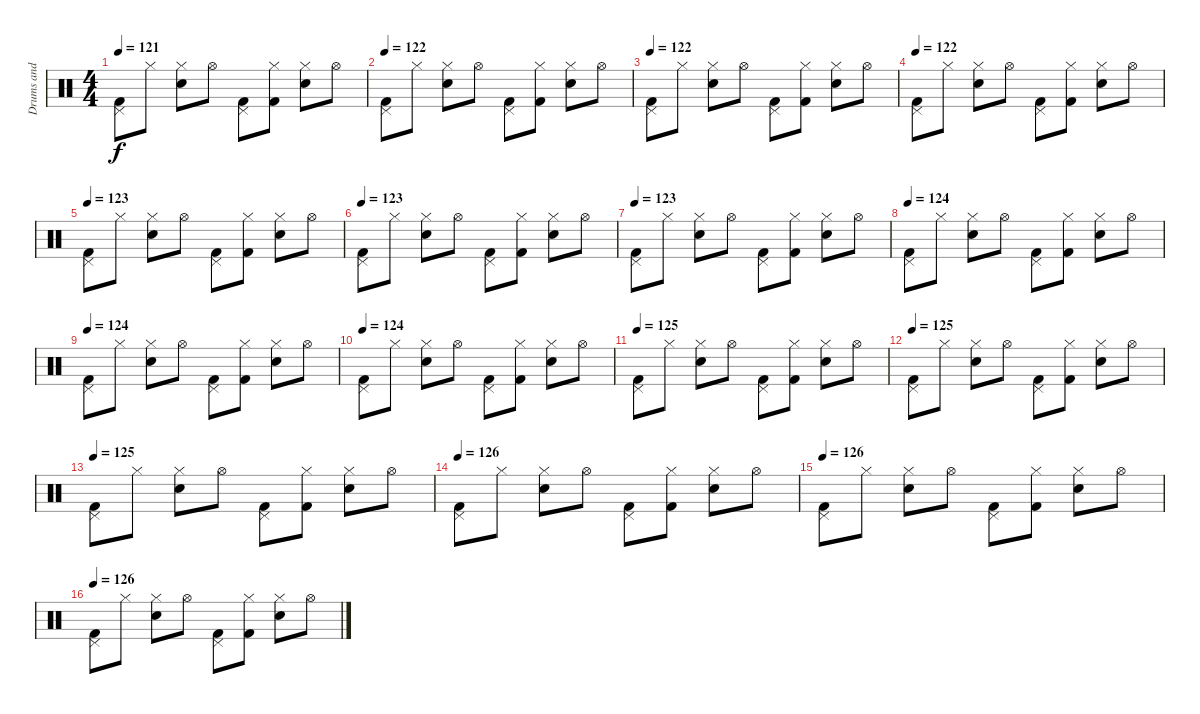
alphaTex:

\track ("Drums and Percussion" "Drums and ") {instrument percussion}
\staff {score}
\articulation defaults
\ts (4 4)
\tempo 121
\clef neutral
\ks c
("Pedal Hi-Hat (hit)" "Kick (hit) 2").8{dy f} "Hi-Hat (closed)".8 ("Hi-Hat (closed)" "Electric Snare (hit)").8 "Hi-Hat (open)".8 ("Pedal Hi-Hat (hit)" "Kick (hit) 2").8 ("Hi-Hat (closed)" "Kick (hit) 2").8 ("Hi-Hat (closed)" "Electric Snare (hit)").8 "Hi-Hat (open)".8 |
\tempo 122
("Pedal Hi-Hat (hit)" "Kick (hit) 2").8 "Hi-Hat (closed)".8 ("Hi-Hat (closed)" "Electric Snare (hit)").8 "Hi-Hat (open)".8 ("Pedal Hi-Hat (hit)" "Kick (hit) 2").8 ("Hi-Hat (closed)" "Kick (hit) 2").8 ("Hi-Hat (closed)" "Electric Snare (hit)").8 "Hi-Hat (open)".8 |
\tempo 122
("Pedal Hi-Hat (hit)" "Kick (hit) 2").8 "Hi-Hat (closed)".8 ("Hi-Hat (closed)" "Electric Snare (hit)").8 "Hi-Hat (open)".8 ("Pedal Hi-Hat (hit)" "Kick (hit) 2").8 ("Hi-Hat (closed)" "Kick (hit) 2").8 ("Hi-Hat (closed)" "Electric Snare (hit)").8 "Hi-Hat (open)".8 |
\tempo 122
("Pedal Hi-Hat (hit)" "Kick (hit) 2").8 "Hi-Hat (closed)".8 ("Hi-Hat (closed)" "Electric Snare (hit)").8 "Hi-Hat (open)".8 ("Pedal Hi-Hat (hit)" "Kick (hit) 2").8 ("Hi-Hat (closed)" "Kick (hit) 2").8 ("Hi-Hat (closed)" "Electric Snare (hit)").8 "Hi-Hat (open)".8 |
\tempo 123
("Pedal Hi-Hat (hit)" "Kick (hit) 2").8 "Hi-Hat (closed)".8 ("Hi-Hat (closed)" "Electric Snare (hit)").8 "Hi-Hat (open)".8 ("Pedal Hi-Hat (hit)" "Kick (hit) 2").8 ("Hi-Hat (closed)" "Kick (hit) 2").8 ("Hi-Hat (closed)" "Electric Snare (hit)").8 "Hi-Hat (open)".8 |
\tempo 123
("Pedal Hi-Hat (hit)" "Kick (hit) 2").8 "Hi-Hat (closed)".8 ("Hi-Hat (closed)" "Electric Snare (hit)").8 "Hi-Hat (open)".8 ("Pedal Hi-Hat (hit)" "Kick (hit) 2").8 ("Hi-Hat (closed)" "Kick (hit) 2").8 ("Hi-Hat (closed)" "Electric Snare (hit)").8 "Hi-Hat (open)".8 |
\tempo 123
("Pedal Hi-Hat (hit)" "Kick (hit) 2").8 "Hi-Hat (closed)".8 ("Hi-Hat (closed)" "Electric Snare (hit)").8 "Hi-Hat (open)".8 ("Pedal Hi-Hat (hit)" "Kick (hit) 2").8 ("Hi-Hat (closed)" "Kick (hit) 2").8 ("Hi-Hat (closed)" "Electric Snare (hit)").8 "Hi-Hat (open)".8 |
\tempo 124
("Pedal Hi-Hat (hit)" "Kick (hit) 2").8 "Hi-Hat (closed)".8 ("Hi-Hat (closed)" "Electric Snare (hit)").8 "Hi-Hat (open)".8 ("Pedal Hi-Hat (hit)" "Kick (hit) 2").8 ("Hi-Hat (closed)" "Kick (hit) 2").8 ("Hi-Hat (closed)" "Electric Snare (hit)").8 "Hi-Hat (open)".8 |
\tempo 124
("Pedal Hi-Hat (hit)" "Kick (hit) 2").8 "Hi-Hat (closed)".8 ("Hi-Hat (closed)" "Electric Snare (hit)").8 "Hi-Hat (open)".8 ("Pedal Hi-Hat (hit)" "Kick (hit) 2").8 ("Hi-Hat (closed)" "Kick (hit) 2").8 ("Hi-Hat (closed)" "Electric Snare (hit)").8 "Hi-Hat (open)".8 |
\tempo 124
("Pedal Hi-Hat (hit)" "Kick (hit) 2").8 "Hi-Hat (closed)".8 ("Hi-Hat (closed)" "Electric Snare (hit)").8 "Hi-Hat (open)".8 ("Pedal Hi-Hat (hit)" "Kick (hit) 2").8 ("Hi-Hat (closed)" "Kick (hit) 2").8 ("Hi-Hat (closed)" "Electric Snare (hit)").8 "Hi-Hat (open)".8 |
\tempo 125
("Pedal Hi-Hat (hit)" "Kick (hit) 2").8 "Hi-Hat (closed)".8 ("Hi-Hat (closed)" "Electric Snare (hit)").8 "Hi-Hat (open)".8 ("Pedal Hi-Hat (hit)" "Kick (hit) 2").8 ("Hi-Hat (closed)" "Kick (hit) 2").8 ("Hi-Hat (closed)" "Electric Snare (hit)").8 "Hi-Hat (open)".8 |
\tempo 125
("Pedal Hi-Hat (hit)" "Kick (hit) 2").8 "Hi-Hat (closed)".8 ("Hi-Hat (closed)" "Electric Snare (hit)").8 "Hi-Hat (open)".8 ("Pedal Hi-Hat (hit)" "Kick (hit) 2").8 ("Hi-Hat (closed)" "Kick (hit) 2").8 ("Hi-Hat (closed)" "Electric Snare (hit)").8 "Hi-Hat (open)".8 |
\tempo 125
("Pedal Hi-Hat (hit)" "Kick (hit) 2").8 "Hi-Hat (closed)".8 ("Hi-Hat (closed)" "Electric Snare (hit)").8 "Hi-Hat (open)".8 ("Pedal Hi-Hat (hit)" "Kick (hit) 2").8 ("Hi-Hat (closed)" "Kick (hit) 2").8 ("Hi-Hat (closed)" "Electric Snare (hit)").8 "Hi-Hat (open)".8 |
\tempo 126
("Pedal Hi-Hat (hit)" "Kick (hit) 2").8 "Hi-Hat (closed)".8 ("Hi-Hat (closed)" "Electric Snare (hit)").8 "Hi-Hat (open)".8 ("Pedal Hi-Hat (hit)" "Kick (hit) 2").8 ("Hi-Hat (closed)" "Kick (hit) 2").8 ("Hi-Hat (closed)" "Electric Snare (hit)").8 "Hi-Hat (open)".8 |
\tempo 126
("Pedal Hi-Hat (hit)" "Kick (hit) 2").8 "Hi-Hat (closed)".8 ("Hi-Hat (closed)" "Electric Snare (hit)").8 "Hi-Hat (open)".8 ("Pedal Hi-Hat (hit)" "Kick (hit) 2").8 ("Hi-Hat (closed)" "Kick (hit) 2").8 ("Hi-Hat (closed)" "Electric Snare (hit)").8 "Hi-Hat (open)".8 |
\tempo 126
("Pedal Hi-Hat (hit)" "Kick (hit) 2").8 "Hi-Hat (closed)".8 ("Hi-Hat (closed)" "Electric Snare (hit)").8 "Hi-Hat (open)".8 ("Pedal Hi-Hat (hit)" "Kick (hit) 2").8 ("Hi-Hat (closed)" "Kick (hit) 2").8 ("Hi-Hat (closed)" "Electric Snare (hit)").8 "Hi-Hat (open)".8
